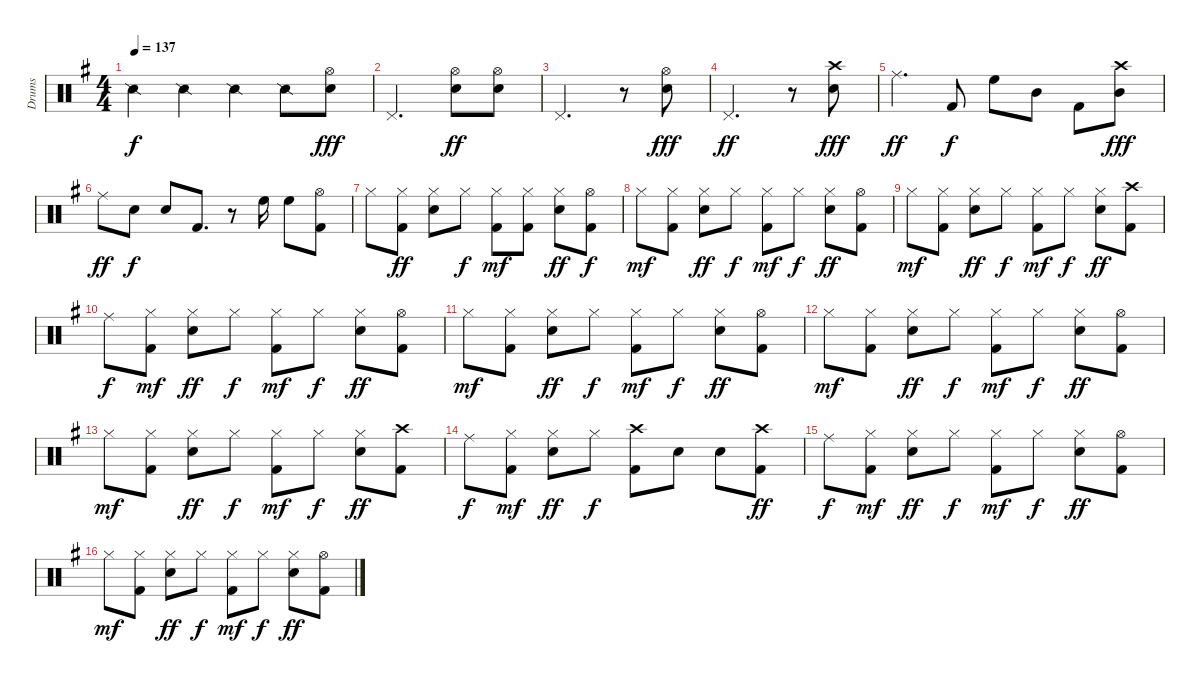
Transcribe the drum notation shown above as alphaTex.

\track ("Drums" "Drums") {instrument percussion}
\staff {score}
\articulation defaults
\ts (4 4)
\tempo 137
\clef neutral
\ks g "Snare (side stick) 2".4{dy f} "Snare (side stick) 2".4 "Snare (side stick) 2".4 "Snare (side stick) 2".8
("Hi-Hat (open)" "Snare (hit) 2").8{dy fff} |
"Pedal Hi-Hat (hit)".2{d} ("Hi-Hat (open)" "Snare (hit) 2").8{dy ff} ("Hi-Hat (open)" "Snare (hit) 2").8 |
"Pedal Hi-Hat (hit)".2{d} r.8 ("Hi-Hat (open)" "Snare (hit) 2").8{dy fff} |
"Pedal Hi-Hat (hit)".2{d dy ff} r.8 ("Crash high (hit)" "Snare (hit) 2").8{dy fff} |
"Ride (middle)".4{d dy ff} "Kick (hit) 2".8{dy f} "High Floor Tom (hit)".8 "Mid Tom (hit)".8 "Kick (hit) 2".8 ("Crash high (hit)" "Mid Tom (hit)").8{dy fff} |
"Ride (middle)".8{dy ff} "Snare (hit) 2".8{dy f} "Snare (hit) 2".8 "Kick (hit) 2".8{d} r.8 "High Floor Tom (hit)".16 "High Floor Tom (hit)".8 ("Hi-Hat (open)" "Kick (hit) 2").8 |
"Hi-Hat (closed)".8 ("Hi-Hat (closed)" "Kick (hit) 2").8{dy ff} ("Hi-Hat (closed)" "Snare (hit) 2").8 "Hi-Hat (closed)".8{dy f} ("Hi-Hat (closed)" "Kick (hit) 2").8{dy mf} ("Hi-Hat (closed)" "Kick (hit) 2").8 ("Hi-Hat (closed)" "Snare (hit) 2").8{dy ff} ("Hi-Hat (open)" "Kick (hit) 2").8{dy f} |
"Hi-Hat (closed)".8{dy mf} ("Hi-Hat (closed)" "Kick (hit) 2").8 ("Hi-Hat (closed)" "Snare (hit) 2").8{dy ff} "Hi-Hat (closed)".8{dy f} ("Hi-Hat (closed)" "Kick (hit) 2").8{dy mf} "Hi-Hat (closed)".8{dy f} ("Hi-Hat (closed)" "Snare (hit) 2").8{dy ff} ("Hi-Hat (open)" "Kick (hit) 2").8 |
"Hi-Hat (closed)".8{dy mf} ("Hi-Hat (closed)" "Kick (hit) 2").8 ("Hi-Hat (closed)" "Snare (hit) 2").8{dy ff} "Hi-Hat (closed)".8{dy f} ("Hi-Hat (closed)" "Kick (hit) 2").8{dy mf} "Hi-Hat (closed)".8{dy f} ("Hi-Hat (closed)" "Snare (hit) 2").8{dy ff} ("Crash high (hit)" "Kick (hit) 2").8 |
"Ride (middle)".8{dy f} ("Hi-Hat (closed)" "Kick (hit) 2").8{dy mf} ("Hi-Hat (closed)" "Snare (hit) 2").8{dy ff} "Hi-Hat (closed)".8{dy f} ("Hi-Hat (closed)" "Kick (hit) 2").8{dy mf} "Hi-Hat (closed)".8{dy f} ("Hi-Hat (closed)" "Snare (hit) 2").8{dy ff} ("Hi-Hat (open)" "Kick (hit) 2").8 |
"Hi-Hat (closed)".8{dy mf} ("Hi-Hat (closed)" "Kick (hit) 2").8 ("Hi-Hat (closed)" "Snare (hit) 2").8{dy ff} "Hi-Hat (closed)".8{dy f} ("Hi-Hat (closed)" "Kick (hit) 2").8{dy mf} "Hi-Hat (closed)".8{dy f} ("Hi-Hat (closed)" "Snare (hit) 2").8{dy ff} ("Hi-Hat (open)" "Kick (hit) 2").8 |
"Hi-Hat (closed)".8{dy mf} ("Hi-Hat (closed)" "Kick (hit) 2").8 ("Hi-Hat (closed)" "Snare (hit) 2").8{dy ff} "Hi-Hat (closed)".8{dy f} ("Hi-Hat (closed)" "Kick (hit) 2").8{dy mf} "Hi-Hat (closed)".8{dy f} ("Hi-Hat (closed)" "Snare (hit) 2").8{dy ff} ("Hi-Hat (open)" "Kick (hit) 2").8 |
"Hi-Hat (closed)".8{dy mf} ("Hi-Hat (closed)" "Kick (hit) 2").8 ("Hi-Hat (closed)" "Snare (hit) 2").8{dy ff} "Hi-Hat (closed)".8{dy f} ("Hi-Hat (closed)" "Kick (hit) 2").8{dy mf} "Hi-Hat (closed)".8{dy f} ("Hi-Hat (closed)" "Snare (hit) 2").8{dy ff} ("Crash high (hit)" "Kick (hit) 2").8 |
"Ride (middle)".8{dy f} ("Hi-Hat (closed)" "Kick (hit) 2").8{dy mf} ("Hi-Hat (closed)" "Snare (hit) 2").8{dy ff} "Hi-Hat (closed)".8{dy f} ("Crash high (hit)" "Kick (hit) 2").8 "Snare (hit) 2".8 "Snare (hit) 2".8 ("Crash high (hit)" "Kick (hit) 2").8{dy ff} |
"Ride (middle)".8{dy f} ("Hi-Hat (closed)" "Kick (hit) 2").8{dy mf} ("Hi-Hat (closed)" "Snare (hit) 2").8{dy ff} "Hi-Hat (closed)".8{dy f} ("Hi-Hat (closed)" "Kick (hit) 2").8{dy mf} "Hi-Hat (closed)".8{dy f} ("Hi-Hat (closed)" "Snare (hit) 2").8{dy ff} ("Hi-Hat (open)" "Kick (hit) 2").8 |
"Hi-Hat (closed)".8{dy mf} ("Hi-Hat (closed)" "Kick (hit) 2").8 ("Hi-Hat (closed)" "Snare (hit) 2").8{dy ff} "Hi-Hat (closed)".8{dy f} ("Hi-Hat (closed)" "Kick (hit) 2").8{dy mf} "Hi-Hat (closed)".8{dy f} ("Hi-Hat (closed)" "Snare (hit) 2").8{dy ff} ("Hi-Hat (open)" "Kick (hit) 2").8
